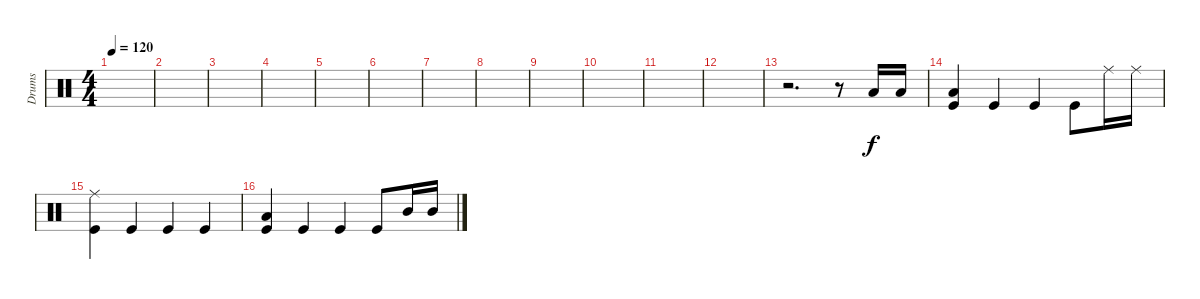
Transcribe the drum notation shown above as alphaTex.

\track ("Drums" "Drums") {instrument percussion}
\staff {score}
\articulation defaults
\ts (4 4)
\tempo 120
\clef neutral
\ks c
|
|
|
|
|
|
|
|
|
|
|
|
r.2{d} r.8 "Low Tom (hit)".16 "Low Tom (hit)".16 |
("Low Tom (hit)" "Kick (hit)").4 "Kick (hit)".4 "Kick (hit)".4 "Kick (hit)".8 "Ride (middle)".16 "Ride (middle)".16 |
("Ride (middle)" "Kick (hit)").4 "Kick (hit)".4 "Kick (hit)".4 "Kick (hit)".4 |
("Low Tom (hit)" "Kick (hit)").4 "Kick (hit)".4 "Kick (hit)".4 "Kick (hit)".8 "Mid Tom (hit)".16 "Mid Tom (hit)".16
